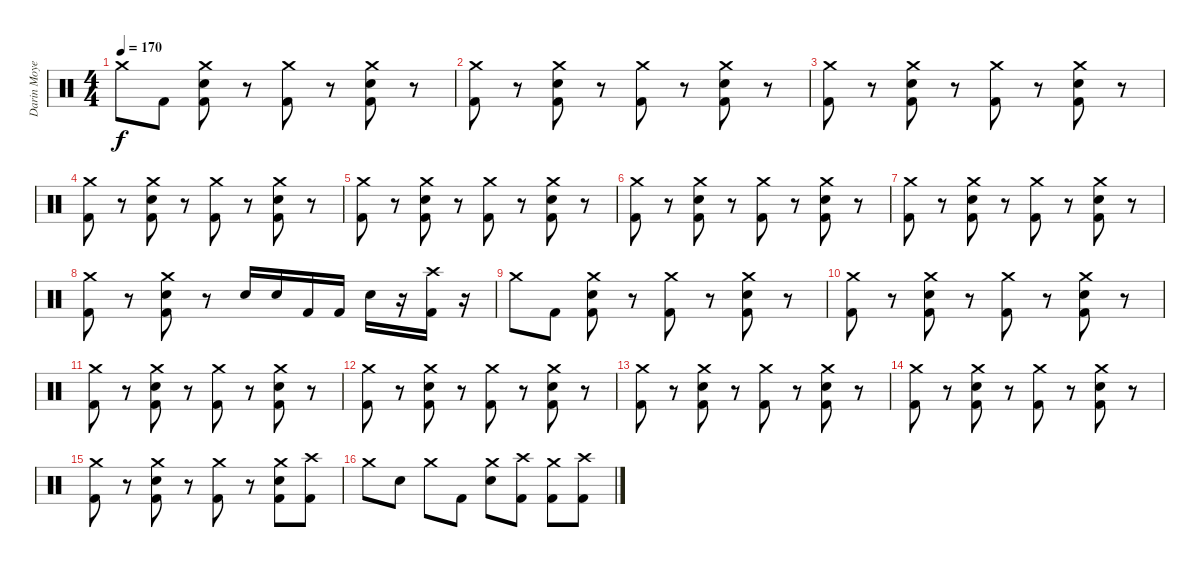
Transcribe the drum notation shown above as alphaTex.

\track ("Darin Moyen" "Darin Moye") {instrument percussion}
\staff {score}
\articulation defaults
\ts (4 4)
\tempo 170
\clef neutral
\ks c "Crash medium (hit)".8{dy f} "Kick (hit) 2".8
("Crash medium (hit)" "Electric Snare (hit)" "Kick (hit) 2").8 r.8 ("Crash medium (hit)" "Kick (hit) 2").8 r.8 ("Crash medium (hit)" "Electric Snare (hit)" "Kick (hit) 2").8 r.8 |
("Crash medium (hit)" "Kick (hit) 2").8 r.8 ("Crash medium (hit)" "Electric Snare (hit)" "Kick (hit) 2").8 r.8 ("Crash medium (hit)" "Kick (hit) 2").8 r.8 ("Crash medium (hit)" "Electric Snare (hit)" "Kick (hit) 2").8 r.8 |
("Crash medium (hit)" "Kick (hit) 2").8 r.8 ("Crash medium (hit)" "Electric Snare (hit)" "Kick (hit) 2").8 r.8 ("Crash medium (hit)" "Kick (hit) 2").8 r.8 ("Crash medium (hit)" "Electric Snare (hit)" "Kick (hit) 2").8 r.8 |
("Crash medium (hit)" "Kick (hit) 2").8 r.8 ("Crash medium (hit)" "Electric Snare (hit)" "Kick (hit) 2").8 r.8 ("Crash medium (hit)" "Kick (hit) 2").8 r.8 ("Crash medium (hit)" "Electric Snare (hit)" "Kick (hit) 2").8 r.8 |
("Crash medium (hit)" "Kick (hit) 2").8 r.8 ("Crash medium (hit)" "Electric Snare (hit)" "Kick (hit) 2").8 r.8 ("Crash medium (hit)" "Kick (hit) 2").8 r.8 ("Crash medium (hit)" "Electric Snare (hit)" "Kick (hit) 2").8 r.8 |
("Crash medium (hit)" "Kick (hit) 2").8 r.8 ("Crash medium (hit)" "Electric Snare (hit)" "Kick (hit) 2").8 r.8 ("Crash medium (hit)" "Kick (hit) 2").8 r.8 ("Crash medium (hit)" "Electric Snare (hit)" "Kick (hit) 2").8 r.8 |
("Crash medium (hit)" "Kick (hit) 2").8 r.8 ("Crash medium (hit)" "Electric Snare (hit)" "Kick (hit) 2").8 r.8 ("Crash medium (hit)" "Kick (hit) 2").8 r.8 ("Crash medium (hit)" "Electric Snare (hit)" "Kick (hit) 2").8 r.8 |
("Crash medium (hit)" "Kick (hit) 2").8 r.8 ("Crash medium (hit)" "Electric Snare (hit)" "Kick (hit) 2").8 r.8 "Electric Snare (hit)".16 "Electric Snare (hit)".16 "Kick (hit) 2".16 "Kick (hit) 2".16 "Electric Snare (hit)".16 r.16 ("Crash high (hit)" "Kick (hit) 2").16 r.16 |
"Crash medium (hit)".8 "Kick (hit) 2".8 ("Crash medium (hit)" "Electric Snare (hit)" "Kick (hit) 2").8 r.8 ("Crash medium (hit)" "Kick (hit) 2").8 r.8 ("Crash medium (hit)" "Electric Snare (hit)" "Kick (hit) 2").8 r.8 |
("Crash medium (hit)" "Kick (hit) 2").8 r.8 ("Crash medium (hit)" "Electric Snare (hit)" "Kick (hit) 2").8 r.8 ("Crash medium (hit)" "Kick (hit) 2").8 r.8 ("Crash medium (hit)" "Electric Snare (hit)" "Kick (hit) 2").8 r.8 |
("Crash medium (hit)" "Kick (hit) 2").8 r.8 ("Crash medium (hit)" "Electric Snare (hit)" "Kick (hit) 2").8 r.8 ("Crash medium (hit)" "Kick (hit) 2").8 r.8 ("Crash medium (hit)" "Electric Snare (hit)" "Kick (hit) 2").8 r.8 |
("Crash medium (hit)" "Kick (hit) 2").8 r.8 ("Crash medium (hit)" "Electric Snare (hit)" "Kick (hit) 2").8 r.8 ("Crash medium (hit)" "Kick (hit) 2").8 r.8 ("Crash medium (hit)" "Electric Snare (hit)" "Kick (hit) 2").8 r.8 |
("Crash medium (hit)" "Kick (hit) 2").8 r.8 ("Crash medium (hit)" "Electric Snare (hit)" "Kick (hit) 2").8 r.8 ("Crash medium (hit)" "Kick (hit) 2").8 r.8 ("Crash medium (hit)" "Electric Snare (hit)" "Kick (hit) 2").8 r.8 |
("Crash medium (hit)" "Kick (hit) 2").8 r.8 ("Crash medium (hit)" "Electric Snare (hit)" "Kick (hit) 2").8 r.8 ("Crash medium (hit)" "Kick (hit) 2").8 r.8 ("Crash medium (hit)" "Electric Snare (hit)" "Kick (hit) 2").8 r.8 |
("Crash medium (hit)" "Kick (hit) 2").8 r.8 ("Crash medium (hit)" "Electric Snare (hit)" "Kick (hit) 2").8 r.8 ("Crash medium (hit)" "Kick (hit) 2").8 r.8 ("Crash medium (hit)" "Electric Snare (hit)" "Kick (hit) 2").8 ("Crash high (hit)" "Kick (hit) 2").8 |
"Crash medium (hit)".8 "Electric Snare (hit)".8 "Crash medium (hit)".8 "Kick (hit) 2".8 ("Crash medium (hit)" "Electric Snare (hit)").8 ("Crash high (hit)" "Kick (hit) 2").8 ("Crash medium (hit)" "Kick (hit) 2").8 ("Crash high (hit)" "Kick (hit) 2").8
